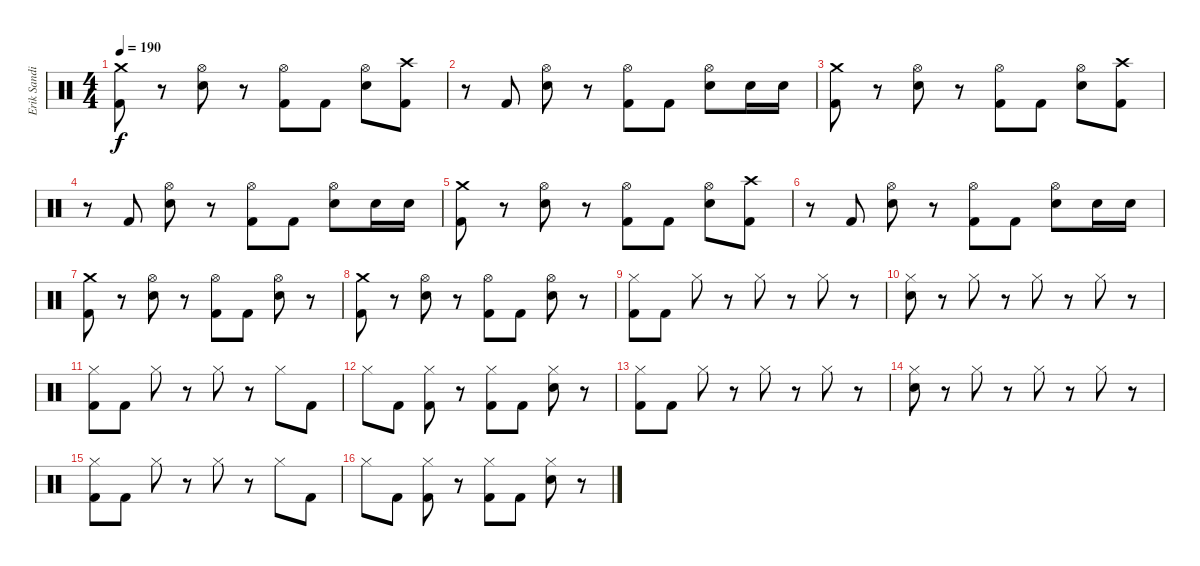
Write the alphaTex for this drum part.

\track ("Erik Sandin" "Erik Sandi") {instrument percussion}
\staff {score}
\articulation defaults
\ts (4 4)
\tempo 190
\clef neutral
\ks c
("Crash medium (hit)" "Kick (hit) 2").8{dy f} r.8 ("Hi-Hat (open)" "Snare (hit) 2").8 r.8 ("Hi-Hat (open)" "Kick (hit) 2").8 "Kick (hit) 2".8 ("Hi-Hat (open)" "Snare (hit) 2").8 ("Crash high (hit)" "Kick (hit) 2").8 |
r.8 "Kick (hit) 2".8 ("Hi-Hat (open)" "Snare (hit) 2").8 r.8 ("Hi-Hat (open)" "Kick (hit) 2").8 "Kick (hit) 2".8 ("Hi-Hat (open)" "Snare (hit) 2").8 "Snare (hit) 2".16 "Snare (hit) 2".16 |
("Crash medium (hit)" "Kick (hit) 2").8 r.8 ("Hi-Hat (open)" "Snare (hit) 2").8 r.8 ("Hi-Hat (open)" "Kick (hit) 2").8 "Kick (hit) 2".8 ("Hi-Hat (open)" "Snare (hit) 2").8 ("Crash high (hit)" "Kick (hit) 2").8 |
r.8 "Kick (hit) 2".8 ("Hi-Hat (open)" "Snare (hit) 2").8 r.8 ("Hi-Hat (open)" "Kick (hit) 2").8 "Kick (hit) 2".8 ("Hi-Hat (open)" "Snare (hit) 2").8 "Snare (hit) 2".16 "Snare (hit) 2".16 |
("Crash medium (hit)" "Kick (hit) 2").8 r.8 ("Hi-Hat (open)" "Snare (hit) 2").8 r.8 ("Hi-Hat (open)" "Kick (hit) 2").8 "Kick (hit) 2".8 ("Hi-Hat (open)" "Snare (hit) 2").8 ("Crash high (hit)" "Kick (hit) 2").8 |
r.8 "Kick (hit) 2".8 ("Hi-Hat (open)" "Snare (hit) 2").8 r.8 ("Hi-Hat (open)" "Kick (hit) 2").8 "Kick (hit) 2".8 ("Hi-Hat (open)" "Snare (hit) 2").8 "Snare (hit) 2".16 "Snare (hit) 2".16 |
("Crash medium (hit)" "Kick (hit) 2").8 r.8 ("Hi-Hat (open)" "Snare (hit) 2").8 r.8 ("Hi-Hat (open)" "Kick (hit) 2").8 "Kick (hit) 2".8 ("Hi-Hat (open)" "Snare (hit) 2").8 r.8 |
("Crash medium (hit)" "Kick (hit) 2").8 r.8 ("Hi-Hat (open)" "Snare (hit) 2").8 r.8 ("Hi-Hat (open)" "Kick (hit) 2").8 "Kick (hit) 2".8 ("Hi-Hat (open)" "Snare (hit) 2").8 r.8 |
("Hi-Hat (closed)" "Kick (hit) 2").8 "Kick (hit) 2".8 "Hi-Hat (closed)".8 r.8 "Hi-Hat (closed)".8 r.8 "Hi-Hat (closed)".8 r.8 |
("Hi-Hat (closed)" "Snare (hit) 2").8 r.8 "Hi-Hat (closed)".8 r.8 "Hi-Hat (closed)".8 r.8 "Hi-Hat (closed)".8 r.8 |
("Hi-Hat (closed)" "Kick (hit) 2").8 "Kick (hit) 2".8 "Hi-Hat (closed)".8 r.8 "Hi-Hat (closed)".8 r.8 "Hi-Hat (closed)".8 "Kick (hit) 2".8 |
"Hi-Hat (closed)".8 "Kick (hit) 2".8 ("Hi-Hat (closed)" "Kick (hit) 2").8 r.8 ("Hi-Hat (closed)" "Kick (hit) 2").8 "Kick (hit) 2".8 ("Hi-Hat (closed)" "Snare (hit) 2").8 r.8 |
("Hi-Hat (closed)" "Kick (hit) 2").8 "Kick (hit) 2".8 "Hi-Hat (closed)".8 r.8 "Hi-Hat (closed)".8 r.8 "Hi-Hat (closed)".8 r.8 |
("Hi-Hat (closed)" "Snare (hit) 2").8 r.8 "Hi-Hat (closed)".8 r.8 "Hi-Hat (closed)".8 r.8 "Hi-Hat (closed)".8 r.8 |
("Hi-Hat (closed)" "Kick (hit) 2").8 "Kick (hit) 2".8 "Hi-Hat (closed)".8 r.8 "Hi-Hat (closed)".8 r.8 "Hi-Hat (closed)".8 "Kick (hit) 2".8 |
"Hi-Hat (closed)".8 "Kick (hit) 2".8 ("Hi-Hat (closed)" "Kick (hit) 2").8 r.8 ("Hi-Hat (closed)" "Kick (hit) 2").8 "Kick (hit) 2".8 ("Hi-Hat (closed)" "Snare (hit) 2").8 r.8
